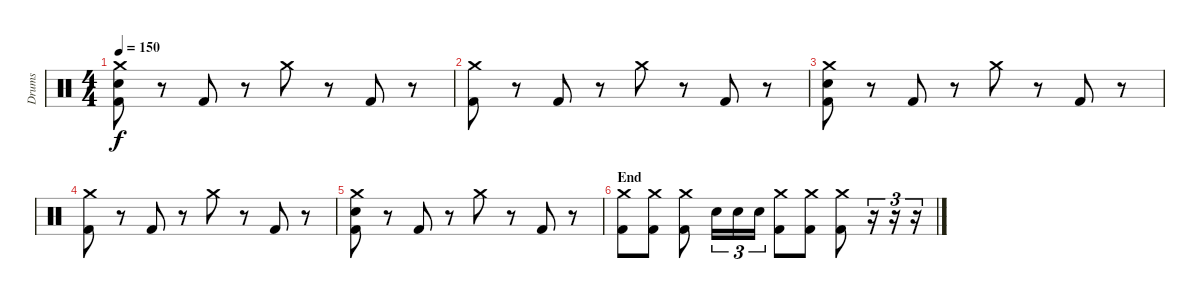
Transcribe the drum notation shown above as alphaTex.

\track ("Drums" "Drums") {instrument percussion}
\staff {score}
\articulation defaults
\ts (4 4)
\tempo 150
\clef neutral
\ks c
("Crash medium (hit)" "Electric Snare (hit)" "Kick (hit) 2").8{dy f} r.8 "Kick (hit) 2".8 r.8 "Crash medium (hit)".8 r.8 "Kick (hit) 2".8 r.8 |
("Crash medium (hit)" "Kick (hit) 2").8 r.8 "Kick (hit) 2".8 r.8 "Crash medium (hit)".8 r.8 "Kick (hit) 2".8 r.8 |
("Crash medium (hit)" "Electric Snare (hit)" "Kick (hit) 2").8 r.8 "Kick (hit) 2".8 r.8 "Crash medium (hit)".8 r.8 "Kick (hit) 2".8 r.8 |
("Crash medium (hit)" "Kick (hit) 2").8 r.8 "Kick (hit) 2".8 r.8 "Crash medium (hit)".8 r.8 "Kick (hit) 2".8 r.8 |
("Crash medium (hit)" "Electric Snare (hit)" "Kick (hit) 2").8 r.8 "Kick (hit) 2".8 r.8 "Crash medium (hit)".8 r.8 "Kick (hit) 2".8 r.8 |
\section ("" "End")
("Crash medium (hit)" "Kick (hit) 2").8 ("Crash medium (hit)" "Kick (hit) 2").8 ("Crash medium (hit)" "Kick (hit) 2").8 "Electric Snare (hit)".16{tu (3 2)} "Electric Snare (hit)".16{tu (3 2)} "Electric Snare (hit)".16{tu (3 2)} ("Crash medium (hit)" "Kick (hit) 2").8 ("Crash medium (hit)" "Kick (hit) 2").8 ("Crash medium (hit)" "Kick (hit) 2").8 r.16{tu (3 2)} r.16{tu (3 2)} r.16{tu (3 2)}
